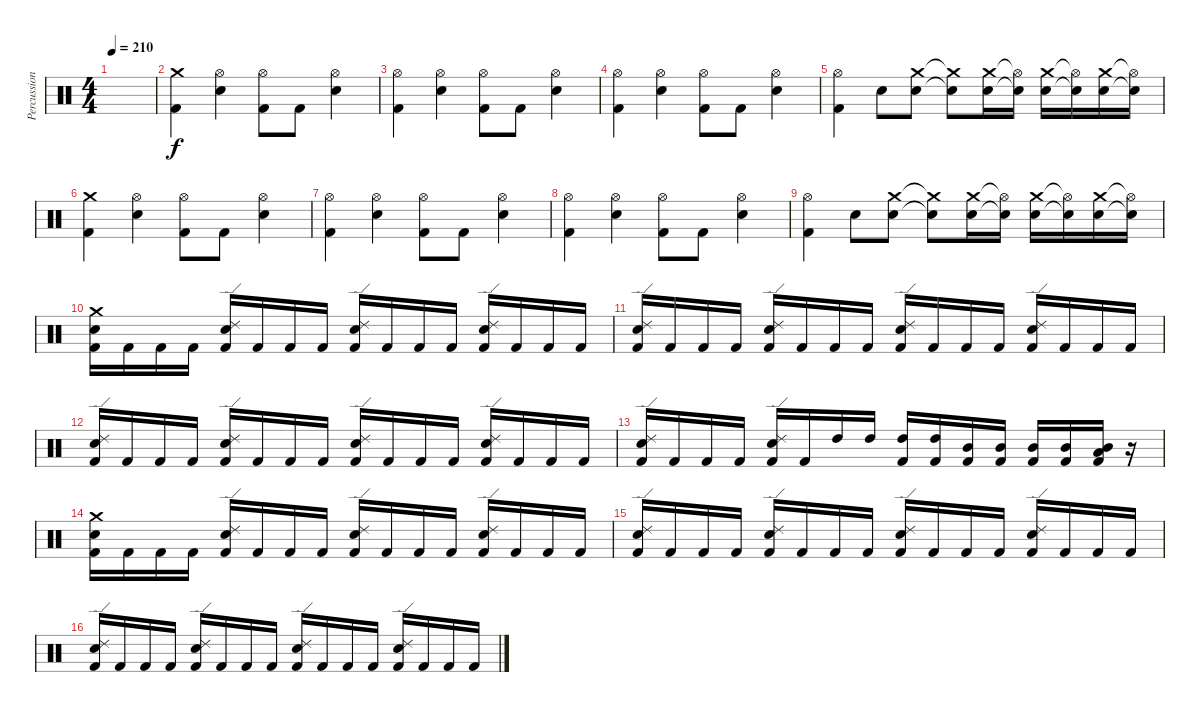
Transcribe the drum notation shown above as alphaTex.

\track ("Percussion" "Percussion") {instrument percussion}
\staff {score}
\articulation defaults
\ts (4 4)
\tempo 210
\clef neutral
\ks c
|
("Crash medium (hit)" "Kick (hit) 2").4 ("Hi-Hat (open)" "Electric Snare (hit)").4 ("Hi-Hat (open)" "Kick (hit) 2").8 "Kick (hit) 2".8 ("Hi-Hat (open)" "Electric Snare (hit)").4 |
("Hi-Hat (open)" "Kick (hit) 2").4 ("Hi-Hat (open)" "Electric Snare (hit)").4 ("Hi-Hat (open)" "Kick (hit) 2").8 "Kick (hit) 2".8 ("Hi-Hat (open)" "Electric Snare (hit)").4 |
("Hi-Hat (open)" "Kick (hit) 2").4 ("Hi-Hat (open)" "Electric Snare (hit)").4 ("Hi-Hat (open)" "Kick (hit) 2").8 "Kick (hit) 2".8 ("Hi-Hat (open)" "Electric Snare (hit)").4 |
("Hi-Hat (open)" "Kick (hit) 2").4 "Electric Snare (hit)".8 ("Crash medium (hit)" "Electric Snare (hit)").8 ("Crash medium (hit)"{t} "Electric Snare (hit)"{t}).8 ("Crash medium (hit)" "Electric Snare (hit)").16 ("Hi-Hat (open)"{t} "Electric Snare (hit)"{t}).16 ("Crash medium (hit)" "Electric Snare (hit)").16 ("Hi-Hat (open)"{t} "Electric Snare (hit)"{t}).16 ("Crash medium (hit)" "Electric Snare (hit)").16 ("Hi-Hat (open)"{t} "Electric Snare (hit)"{t}).16 |
("Crash medium (hit)" "Kick (hit) 2").4 ("Hi-Hat (open)" "Electric Snare (hit)").4 ("Hi-Hat (open)" "Kick (hit) 2").8 "Kick (hit) 2".8 ("Hi-Hat (open)" "Electric Snare (hit)").4 |
("Hi-Hat (open)" "Kick (hit) 2").4 ("Hi-Hat (open)" "Electric Snare (hit)").4 ("Hi-Hat (open)" "Kick (hit) 2").8 "Kick (hit) 2".8 ("Hi-Hat (open)" "Electric Snare (hit)").4 |
("Hi-Hat (open)" "Kick (hit) 2").4 ("Hi-Hat (open)" "Electric Snare (hit)").4 ("Hi-Hat (open)" "Kick (hit) 2").8 "Kick (hit) 2".8 ("Hi-Hat (open)" "Electric Snare (hit)").4 |
("Hi-Hat (open)" "Kick (hit) 2").4 "Electric Snare (hit)".8 ("Crash medium (hit)" "Electric Snare (hit)").8 ("Crash medium (hit)"{t} "Electric Snare (hit)"{t}).8 ("Crash medium (hit)" "Electric Snare (hit)").16 ("Hi-Hat (open)"{t} "Electric Snare (hit)"{t}).16 ("Crash medium (hit)" "Electric Snare (hit)").16 ("Hi-Hat (open)"{t} "Electric Snare (hit)"{t}).16 ("Crash medium (hit)" "Electric Snare (hit)").16 ("Hi-Hat (open)"{t} "Electric Snare (hit)"{t}).16 |
("Crash medium (hit)" "Electric Snare (hit)" "Kick (hit) 2").16 "Kick (hit) 2".16 "Kick (hit) 2".16 "Kick (hit) 2".16 ("Ride (edge) 2" "Electric Snare (hit)" "Kick (hit) 2").16 "Kick (hit) 2".16 "Kick (hit) 2".16 "Kick (hit) 2".16 ("Ride (edge) 2" "Electric Snare (hit)" "Kick (hit) 2").16 "Kick (hit) 2".16 "Kick (hit) 2".16 "Kick (hit) 2".16 ("Ride (edge) 2" "Electric Snare (hit)" "Kick (hit) 2").16 "Kick (hit) 2".16 "Kick (hit) 2".16 "Kick (hit) 2".16 |
("Ride (edge) 2" "Electric Snare (hit)" "Kick (hit) 2").16 "Kick (hit) 2".16 "Kick (hit) 2".16 "Kick (hit) 2".16 ("Ride (edge) 2" "Electric Snare (hit)" "Kick (hit) 2").16 "Kick (hit) 2".16 "Kick (hit) 2".16 "Kick (hit) 2".16 ("Ride (edge) 2" "Electric Snare (hit)" "Kick (hit) 2").16 "Kick (hit) 2".16 "Kick (hit) 2".16 "Kick (hit) 2".16 ("Ride (edge) 2" "Electric Snare (hit)" "Kick (hit) 2").16 "Kick (hit) 2".16 "Kick (hit) 2".16 "Kick (hit) 2".16 |
("Ride (edge) 2" "Electric Snare (hit)" "Kick (hit) 2").16 "Kick (hit) 2".16 "Kick (hit) 2".16 "Kick (hit) 2".16 ("Ride (edge) 2" "Electric Snare (hit)" "Kick (hit) 2").16 "Kick (hit) 2".16 "Kick (hit) 2".16 "Kick (hit) 2".16 ("Ride (edge) 2" "Electric Snare (hit)" "Kick (hit) 2").16 "Kick (hit) 2".16 "Kick (hit) 2".16 "Kick (hit) 2".16 ("Ride (edge) 2" "Electric Snare (hit)" "Kick (hit) 2").16 "Kick (hit) 2".16 "Kick (hit) 2".16 "Kick (hit) 2".16 |
("Ride (edge) 2" "Electric Snare (hit)" "Kick (hit) 2").16 "Kick (hit) 2".16 "Kick (hit) 2".16 "Kick (hit) 2".16 ("Ride (edge) 2" "Electric Snare (hit)" "Kick (hit) 2").16 "Kick (hit) 2".16 "High Tom (hit)".16 "High Tom (hit)".16 ("High Tom (hit)" "Kick (hit) 2").16 ("High Tom (hit)" "Kick (hit) 2").16 ("Mid Tom (hit)" "Kick (hit) 2").16 ("Mid Tom (hit)" "Kick (hit) 2").16 ("Mid Tom (hit)" "Kick (hit) 2").16 ("Mid Tom (hit)" "Kick (hit) 2").16 ("Mid Tom (hit)" "Low Tom (hit)" "Kick (hit) 2").16 r.16 |
("Crash medium (hit)" "Electric Snare (hit)" "Kick (hit) 2").16 "Kick (hit) 2".16 "Kick (hit) 2".16 "Kick (hit) 2".16 ("Ride (edge) 2" "Electric Snare (hit)" "Kick (hit) 2").16 "Kick (hit) 2".16 "Kick (hit) 2".16 "Kick (hit) 2".16 ("Ride (edge) 2" "Electric Snare (hit)" "Kick (hit) 2").16 "Kick (hit) 2".16 "Kick (hit) 2".16 "Kick (hit) 2".16 ("Ride (edge) 2" "Electric Snare (hit)" "Kick (hit) 2").16 "Kick (hit) 2".16 "Kick (hit) 2".16 "Kick (hit) 2".16 |
("Ride (edge) 2" "Electric Snare (hit)" "Kick (hit) 2").16 "Kick (hit) 2".16 "Kick (hit) 2".16 "Kick (hit) 2".16 ("Ride (edge) 2" "Electric Snare (hit)" "Kick (hit) 2").16 "Kick (hit) 2".16 "Kick (hit) 2".16 "Kick (hit) 2".16 ("Ride (edge) 2" "Electric Snare (hit)" "Kick (hit) 2").16 "Kick (hit) 2".16 "Kick (hit) 2".16 "Kick (hit) 2".16 ("Ride (edge) 2" "Electric Snare (hit)" "Kick (hit) 2").16 "Kick (hit) 2".16 "Kick (hit) 2".16 "Kick (hit) 2".16 |
("Ride (edge) 2" "Electric Snare (hit)" "Kick (hit) 2").16 "Kick (hit) 2".16 "Kick (hit) 2".16 "Kick (hit) 2".16 ("Ride (edge) 2" "Electric Snare (hit)" "Kick (hit) 2").16 "Kick (hit) 2".16 "Kick (hit) 2".16 "Kick (hit) 2".16 ("Ride (edge) 2" "Electric Snare (hit)" "Kick (hit) 2").16 "Kick (hit) 2".16 "Kick (hit) 2".16 "Kick (hit) 2".16 ("Ride (edge) 2" "Electric Snare (hit)" "Kick (hit) 2").16 "Kick (hit) 2".16 "Kick (hit) 2".16 "Kick (hit) 2".16
